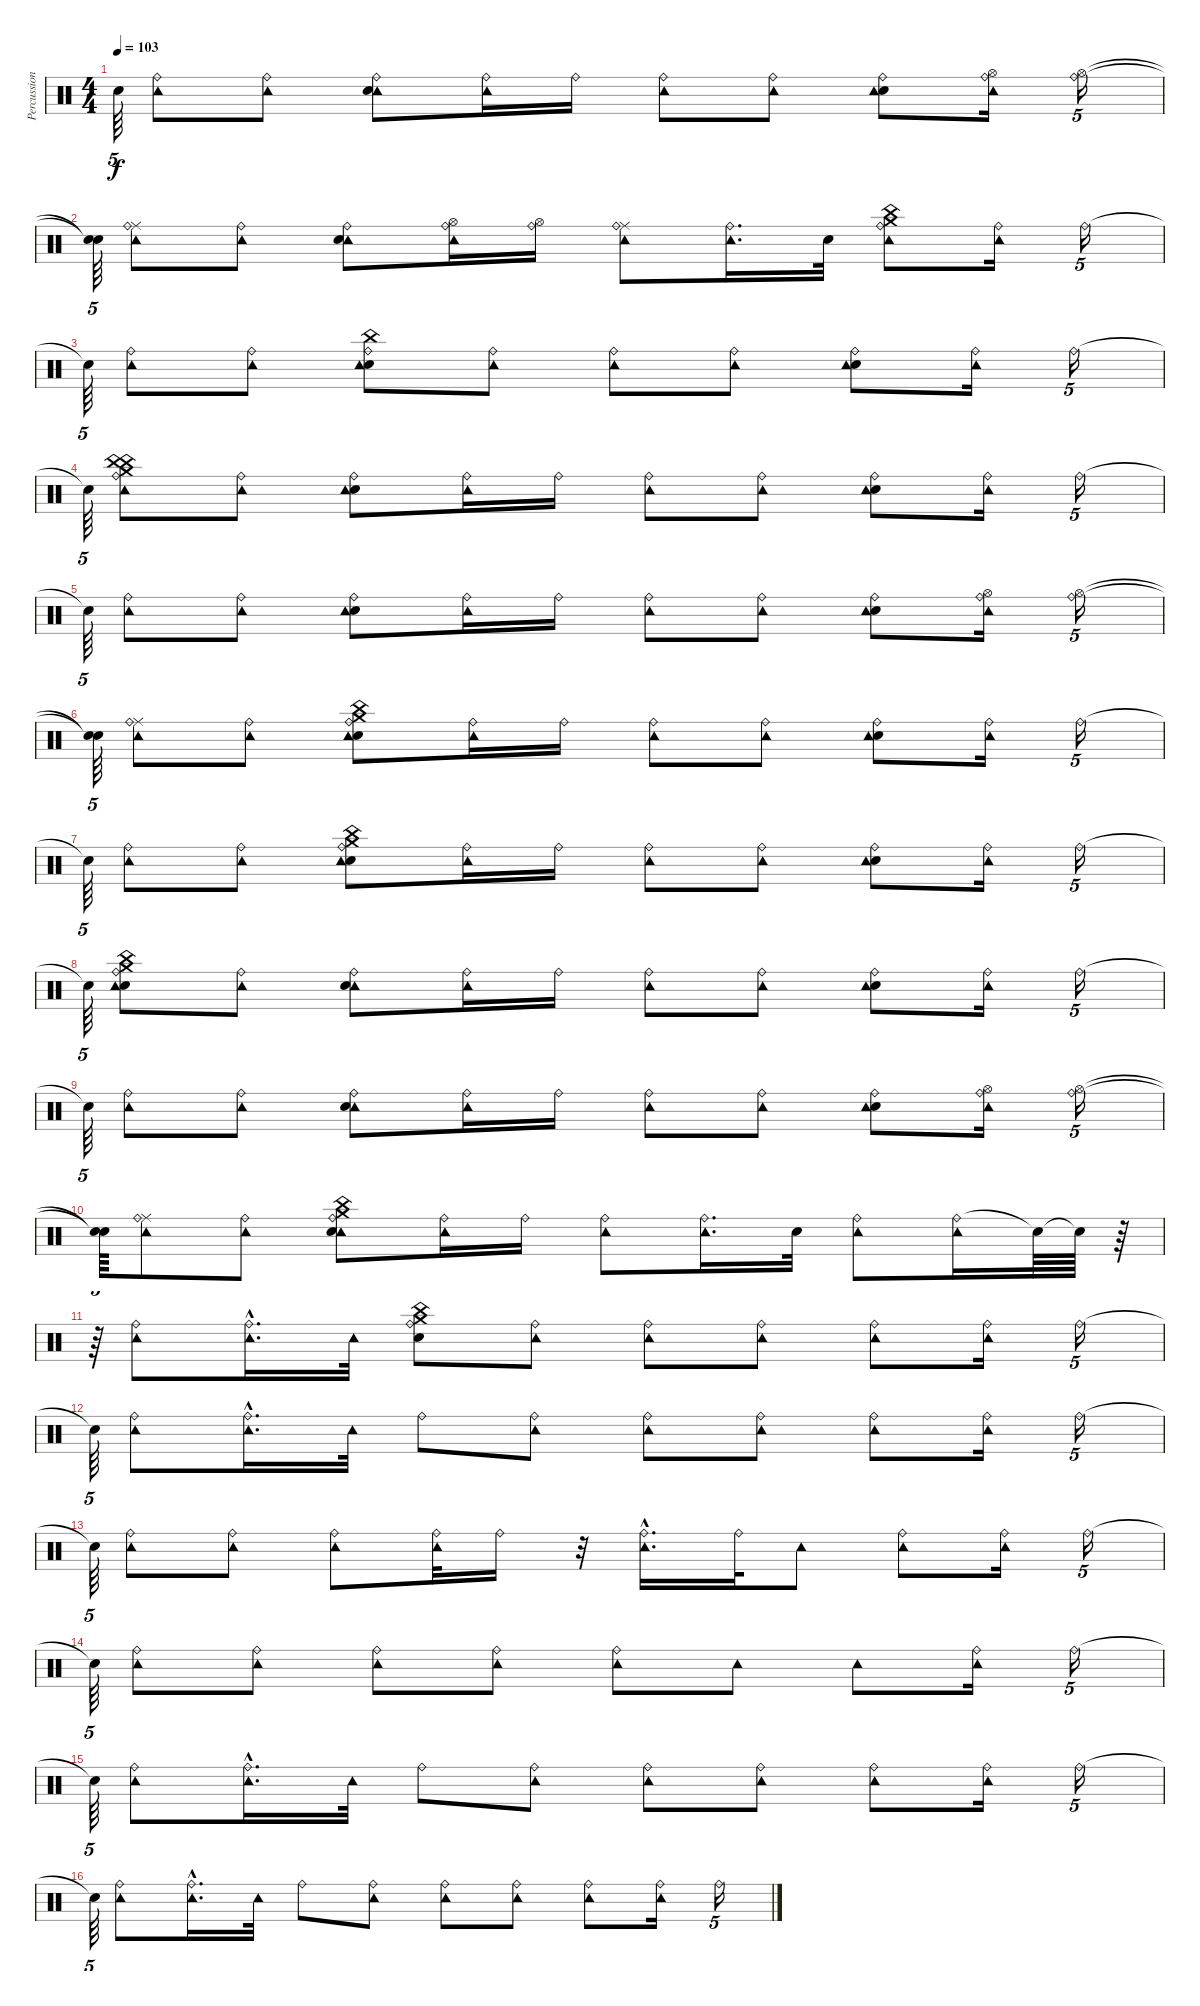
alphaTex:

\track ("Percussion" "Percussion") {instrument percussion}
\staff {score}
\articulation defaults
\ts (4 4)
\tempo 103
\clef neutral
\ks c "Snare (hit)"{t}.64{tu (5 4) dy f}
("Ride (bell)" "Tambourine (hit)").8 ("Ride (bell)" "Tambourine (hit)").8 ("Ride (bell)" "Tambourine (hit)" "Snare (hit) 2").8 ("Ride (bell)" "Tambourine (hit)").16 "Ride (bell)".16 ("Ride (bell)" "Tambourine (hit)").8 ("Ride (bell)" "Tambourine (hit)").8 ("Ride (bell)" "Snare (hit) 2" "Tambourine (hit)").8 ("Hi-Hat (open)" "Ride (bell)" "Tambourine (hit)").16 ("Hi-Hat (open)" "Ride (bell)").16{tu (5 4)} |
("Snare (hit)"{t} "Snare (hit)"{t}).64{tu (5 4)} ("Ride (middle)" "Ride (bell)" "Tambourine (hit)").8 ("Ride (bell)" "Tambourine (hit)").8 ("Ride (bell)" "Tambourine (hit)" "Snare (hit) 2").8 ("Hi-Hat (open)" "Ride (bell)" "Tambourine (hit)").16 ("Hi-Hat (open)" "Ride (bell)").16 ("Ride (middle)" "Ride (bell)" "Tambourine (hit)").8 ("Ride (bell)" "Tambourine (hit)").16{d} "Snare (hit) 2".32 ("China (hit)" "Crash medium (hit)" "Ride (bell)" "Tambourine (hit)").8 ("Ride (bell)" "Tambourine (hit)").16 "Ride (bell)".16{tu (5 4)} |
"Snare (hit)"{t}.64{tu (5 4)} ("Ride (bell)" "Tambourine (hit)").8 ("Ride (bell)" "Tambourine (hit)").8 ("Snare (hit) 2" "China (hit)" "Ride (bell)" "Tambourine (hit)").8 ("Ride (bell)" "Tambourine (hit)").8 ("Ride (bell)" "Tambourine (hit)").8 ("Ride (bell)" "Tambourine (hit)").8 ("Snare (hit) 2" "Ride (bell)" "Tambourine (hit)").8 ("Ride (bell)" "Tambourine (hit)").16 "Ride (bell)".16{tu (5 4)} |
"Snare (hit)"{t}.64{tu (5 4)} ("China (hit)" "Crash medium (hit)" "China (hit)" "Ride (bell)" "Tambourine (hit)").8 ("Ride (bell)" "Tambourine (hit)").8 ("Snare (hit) 2" "Ride (bell)" "Tambourine (hit)").8 ("Ride (bell)" "Tambourine (hit)").16 "Ride (bell)".16 ("Ride (bell)" "Tambourine (hit)").8 ("Ride (bell)" "Tambourine (hit)").8 ("Snare (hit) 2" "Ride (bell)" "Tambourine (hit)").8 ("Ride (bell)" "Tambourine (hit)").16 "Ride (bell)".16{tu (5 4)} |
"Snare (hit)"{t}.64{tu (5 4)} ("Ride (bell)" "Tambourine (hit)").8 ("Ride (bell)" "Tambourine (hit)").8 ("Snare (hit) 2" "Ride (bell)" "Tambourine (hit)").8 ("Ride (bell)" "Tambourine (hit)").16 "Ride (bell)".16 ("Ride (bell)" "Tambourine (hit)").8 ("Ride (bell)" "Tambourine (hit)").8 ("Snare (hit) 2" "Ride (bell)" "Tambourine (hit)").8 ("Hi-Hat (open)" "Ride (bell)" "Tambourine (hit)").16 ("Hi-Hat (open)" "Ride (bell)").16{tu (5 4)} |
("Snare (hit)"{t} "Snare (hit)"{t}).64{tu (5 4)} ("Ride (middle)" "Ride (bell)" "Tambourine (hit)").8 ("Ride (bell)" "Tambourine (hit)").8 ("Snare (hit) 2" "Crash medium (hit)" "China (hit)" "Ride (bell)" "Tambourine (hit)").8 ("Ride (bell)" "Tambourine (hit)").16 "Ride (bell)".16 ("Ride (bell)" "Tambourine (hit)").8 ("Ride (bell)" "Tambourine (hit)").8 ("Ride (bell)" "Snare (hit) 2" "Tambourine (hit)").8 ("Ride (bell)" "Tambourine (hit)").16 "Ride (bell)".16{tu (5 4)} |
"Snare (hit)"{t}.64{tu (5 4)} ("Ride (bell)" "Tambourine (hit)").8 ("Ride (bell)" "Tambourine (hit)").8 ("Snare (hit) 2" "Crash medium (hit)" "China (hit)" "Ride (bell)" "Tambourine (hit)").8 ("Ride (bell)" "Tambourine (hit)").16 "Ride (bell)".16 ("Ride (bell)" "Tambourine (hit)").8 ("Ride (bell)" "Tambourine (hit)").8 ("Ride (bell)" "Snare (hit) 2" "Tambourine (hit)").8 ("Ride (bell)" "Tambourine (hit)").16 "Ride (bell)".16{tu (5 4)} |
"Snare (hit)"{t}.64{tu (5 4)} ("Snare (hit) 2" "Crash medium (hit)" "China (hit)" "Ride (bell)" "Tambourine (hit)").8 ("Ride (bell)" "Tambourine (hit)").8 ("Ride (bell)" "Tambourine (hit)" "Snare (hit) 2").8 ("Ride (bell)" "Tambourine (hit)").16 "Ride (bell)".16 ("Ride (bell)" "Tambourine (hit)").8 ("Ride (bell)" "Tambourine (hit)").8 ("Ride (bell)" "Snare (hit) 2" "Tambourine (hit)").8 ("Ride (bell)" "Tambourine (hit)").16 "Ride (bell)".16{tu (5 4)} |
"Snare (hit)"{t}.64{tu (5 4)} ("Ride (bell)" "Tambourine (hit)").8 ("Ride (bell)" "Tambourine (hit)").8 ("Ride (bell)" "Tambourine (hit)" "Snare (hit) 2").8 ("Ride (bell)" "Tambourine (hit)").16 "Ride (bell)".16 ("Ride (bell)" "Tambourine (hit)").8 ("Ride (bell)" "Tambourine (hit)").8 ("Ride (bell)" "Snare (hit) 2" "Tambourine (hit)").8 ("Hi-Hat (open)" "Ride (bell)" "Tambourine (hit)").16 ("Hi-Hat (open)" "Ride (bell)").16{tu (5 4)} |
("Snare (hit)"{t} "Snare (hit)"{t}).64 ("Ride (middle)" "Ride (bell)" "Tambourine (hit)").8 ("Ride (bell)" "Tambourine (hit)").8 ("Crash medium (hit)" "China (hit)" "Ride (bell)" "Tambourine (hit)" "Snare (hit) 2").8 ("Ride (bell)" "Tambourine (hit)").16 "Ride (bell)".16 ("Ride (bell)" "Tambourine (hit)").8 ("Ride (bell)" "Tambourine (hit)").16{d} "Snare (hit) 2".32 ("Ride (bell)" "Tambourine (hit)").8 ("Ride (bell)" "Tambourine (hit)").16 "Snare (hit)"{t}.64 "Snare (hit)"{t}.64 r.64 |
r.64{tu (5 4)} ("Ride (bell)" "Tambourine (hit)").8 ("Ride (bell)" "Tambourine (hit)"{hac}).16{d} "Tambourine (hit)".32 ("Snare (hit) 2" "Crash medium (hit)" "China (hit)" "Ride (bell)").8 ("Ride (bell)" "Tambourine (hit)").8 ("Ride (bell)" "Tambourine (hit)").8 ("Ride (bell)" "Tambourine (hit)").8 ("Ride (bell)" "Tambourine (hit)").8 ("Ride (bell)" "Tambourine (hit)").16 "Ride (bell)".16{tu (5 4)} |
"Snare (hit)"{t}.64{tu (5 4)} ("Ride (bell)" "Tambourine (hit)").8 ("Ride (bell)" "Tambourine (hit)"{hac}).16{d} "Tambourine (hit)".32 "Ride (bell)".8 ("Ride (bell)" "Tambourine (hit)").8 ("Ride (bell)" "Tambourine (hit)").8 ("Ride (bell)" "Tambourine (hit)").8 ("Ride (bell)" "Tambourine (hit)").8 ("Ride (bell)" "Tambourine (hit)").16 "Ride (bell)".16{tu (5 4)} |
"Snare (hit)"{t}.64{tu (5 4)} ("Tambourine (hit)" "Ride (bell)").8 ("Tambourine (hit)" "Ride (bell)").8 ("Ride (bell)" "Tambourine (hit)").8 ("Ride (bell)" "Tambourine (hit)").32 "Ride (bell)".16 r.32 ("Ride (bell)"{hac} "Tambourine (hit)").16{d} "Ride (bell)".32 "Tambourine (hit)".8 ("Ride (bell)" "Tambourine (hit)").8 ("Ride (bell)" "Tambourine (hit)").16 "Ride (bell)".16{tu (5 4)} |
"Snare (hit)"{t}.64{tu (5 4)} ("Tambourine (hit)" "Ride (bell)").8 ("Ride (bell)" "Tambourine (hit)").8 ("Ride (bell)" "Tambourine (hit)").8 ("Ride (bell)" "Tambourine (hit)").8 ("Ride (bell)" "Tambourine (hit)").8 "Tambourine (hit)".8 "Tambourine (hit)".8 ("Ride (bell)" "Tambourine (hit)").16 "Ride (bell)".16{tu (5 4)} |
"Snare (hit)"{t}.64{tu (5 4)} ("Ride (bell)" "Tambourine (hit)").8 ("Ride (bell)" "Tambourine (hit)"{hac}).16{d} "Tambourine (hit)".32 "Ride (bell)".8 ("Ride (bell)" "Tambourine (hit)").8 ("Ride (bell)" "Tambourine (hit)").8 ("Ride (bell)" "Tambourine (hit)").8 ("Ride (bell)" "Tambourine (hit)").8 ("Ride (bell)" "Tambourine (hit)").16 "Ride (bell)".16{tu (5 4)} |
"Snare (hit)"{t}.64{tu (5 4)} ("Ride (bell)" "Tambourine (hit)").8 ("Ride (bell)" "Tambourine (hit)"{hac}).16{d} "Tambourine (hit)".32 "Ride (bell)".8 ("Ride (bell)" "Tambourine (hit)").8 ("Ride (bell)" "Tambourine (hit)").8 ("Ride (bell)" "Tambourine (hit)").8 ("Ride (bell)" "Tambourine (hit)").8 ("Ride (bell)" "Tambourine (hit)").16 "Ride (bell)".16{tu (5 4)}
